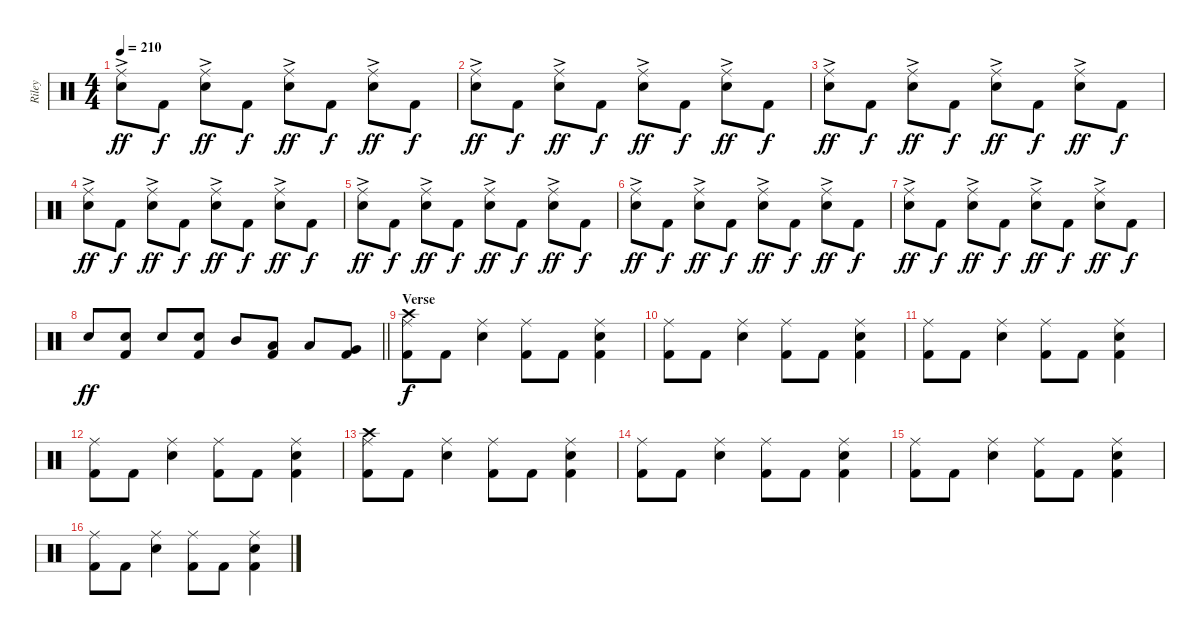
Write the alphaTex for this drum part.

\track ("Riley" "Riley") {instrument percussion}
\staff {score}
\articulation defaults
\ts (4 4)
\tempo 210
\clef neutral
\ks c
("Ride (middle)" "Electric Snare (hit)"{ac}).8{dy ff} "Kick (hit) 2".8{dy f} ("Ride (middle)" "Electric Snare (hit)"{ac}).8{dy ff} "Kick (hit) 2".8{dy f} ("Ride (middle)" "Electric Snare (hit)"{ac}).8{dy ff} "Kick (hit) 2".8{dy f} ("Ride (middle)" "Electric Snare (hit)"{ac}).8{dy ff} "Kick (hit) 2".8{dy f} |
("Ride (middle)" "Electric Snare (hit)"{ac}).8{dy ff} "Kick (hit) 2".8{dy f} ("Ride (middle)" "Electric Snare (hit)"{ac}).8{dy ff} "Kick (hit) 2".8{dy f} ("Ride (middle)" "Electric Snare (hit)"{ac}).8{dy ff} "Kick (hit) 2".8{dy f} ("Ride (middle)" "Electric Snare (hit)"{ac}).8{dy ff} "Kick (hit) 2".8{dy f} |
("Ride (middle)" "Electric Snare (hit)"{ac}).8{dy ff} "Kick (hit) 2".8{dy f} ("Ride (middle)" "Electric Snare (hit)"{ac}).8{dy ff} "Kick (hit) 2".8{dy f} ("Ride (middle)" "Electric Snare (hit)"{ac}).8{dy ff} "Kick (hit) 2".8{dy f} ("Ride (middle)" "Electric Snare (hit)"{ac}).8{dy ff} "Kick (hit) 2".8{dy f} |
("Ride (middle)" "Electric Snare (hit)"{ac}).8{dy ff} "Kick (hit) 2".8{dy f} ("Ride (middle)" "Electric Snare (hit)"{ac}).8{dy ff} "Kick (hit) 2".8{dy f} ("Ride (middle)" "Electric Snare (hit)"{ac}).8{dy ff} "Kick (hit) 2".8{dy f} ("Ride (middle)" "Electric Snare (hit)"{ac}).8{dy ff} "Kick (hit) 2".8{dy f} |
("Ride (middle)" "Electric Snare (hit)"{ac}).8{dy ff} "Kick (hit) 2".8{dy f} ("Ride (middle)" "Electric Snare (hit)"{ac}).8{dy ff} "Kick (hit) 2".8{dy f} ("Ride (middle)" "Electric Snare (hit)"{ac}).8{dy ff} "Kick (hit) 2".8{dy f} ("Ride (middle)" "Electric Snare (hit)"{ac}).8{dy ff} "Kick (hit) 2".8{dy f} |
("Ride (middle)" "Electric Snare (hit)"{ac}).8{dy ff} "Kick (hit) 2".8{dy f} ("Ride (middle)" "Electric Snare (hit)"{ac}).8{dy ff} "Kick (hit) 2".8{dy f} ("Ride (middle)" "Electric Snare (hit)"{ac}).8{dy ff} "Kick (hit) 2".8{dy f} ("Ride (middle)" "Electric Snare (hit)"{ac}).8{dy ff} "Kick (hit) 2".8{dy f} |
("Ride (middle)" "Electric Snare (hit)"{ac}).8{dy ff} "Kick (hit) 2".8{dy f} ("Ride (middle)" "Electric Snare (hit)"{ac}).8{dy ff} "Kick (hit) 2".8{dy f} ("Ride (middle)" "Electric Snare (hit)"{ac}).8{dy ff} "Kick (hit) 2".8{dy f} ("Ride (middle)" "Electric Snare (hit)"{ac}).8{dy ff} "Kick (hit) 2".8{dy f} |
\barLineRight lightlight "Electric Snare (hit)".8{dy ff}
("Electric Snare (hit)" "Kick (hit) 2").8 "Electric Snare (hit)".8 ("Electric Snare (hit)" "Kick (hit) 2").8 "Mid Tom (hit)".8 ("Low Tom (hit)" "Kick (hit) 2").8 "Low Tom (hit)".8 ("Very Low Tom (hit)" "Kick (hit) 2").8 |
\section ("" "Verse")
("Crash high (hit)" "Ride (middle)" "Kick (hit) 2").8{dy f} "Kick (hit) 2".8 ("Ride (middle)" "Electric Snare (hit)").4 ("Ride (middle)" "Kick (hit) 2").8 "Kick (hit) 2".8 ("Ride (middle)" "Electric Snare (hit)" "Kick (hit) 2").4 |
("Ride (middle)" "Kick (hit) 2").8 "Kick (hit) 2".8 ("Ride (middle)" "Electric Snare (hit)").4 ("Ride (middle)" "Kick (hit) 2").8 "Kick (hit) 2".8 ("Ride (middle)" "Electric Snare (hit)" "Kick (hit) 2").4 |
("Ride (middle)" "Kick (hit) 2").8 "Kick (hit) 2".8 ("Ride (middle)" "Electric Snare (hit)").4 ("Ride (middle)" "Kick (hit) 2").8 "Kick (hit) 2".8 ("Ride (middle)" "Electric Snare (hit)" "Kick (hit) 2").4 |
("Ride (middle)" "Kick (hit) 2").8 "Kick (hit) 2".8 ("Ride (middle)" "Electric Snare (hit)").4 ("Ride (middle)" "Kick (hit) 2").8 "Kick (hit) 2".8 ("Ride (middle)" "Electric Snare (hit)" "Kick (hit) 2").4 |
("Crash high (hit)" "Ride (middle)" "Kick (hit) 2").8 "Kick (hit) 2".8 ("Ride (middle)" "Electric Snare (hit)").4 ("Ride (middle)" "Kick (hit) 2").8 "Kick (hit) 2".8 ("Ride (middle)" "Electric Snare (hit)" "Kick (hit) 2").4 |
("Ride (middle)" "Kick (hit) 2").8 "Kick (hit) 2".8 ("Ride (middle)" "Electric Snare (hit)").4 ("Ride (middle)" "Kick (hit) 2").8 "Kick (hit) 2".8 ("Ride (middle)" "Electric Snare (hit)" "Kick (hit) 2").4 |
("Ride (middle)" "Kick (hit) 2").8 "Kick (hit) 2".8 ("Ride (middle)" "Electric Snare (hit)").4 ("Ride (middle)" "Kick (hit) 2").8 "Kick (hit) 2".8 ("Ride (middle)" "Electric Snare (hit)" "Kick (hit) 2").4 |
("Ride (middle)" "Kick (hit) 2").8 "Kick (hit) 2".8 ("Ride (middle)" "Electric Snare (hit)").4 ("Ride (middle)" "Kick (hit) 2").8 "Kick (hit) 2".8 ("Ride (middle)" "Electric Snare (hit)" "Kick (hit) 2").4
